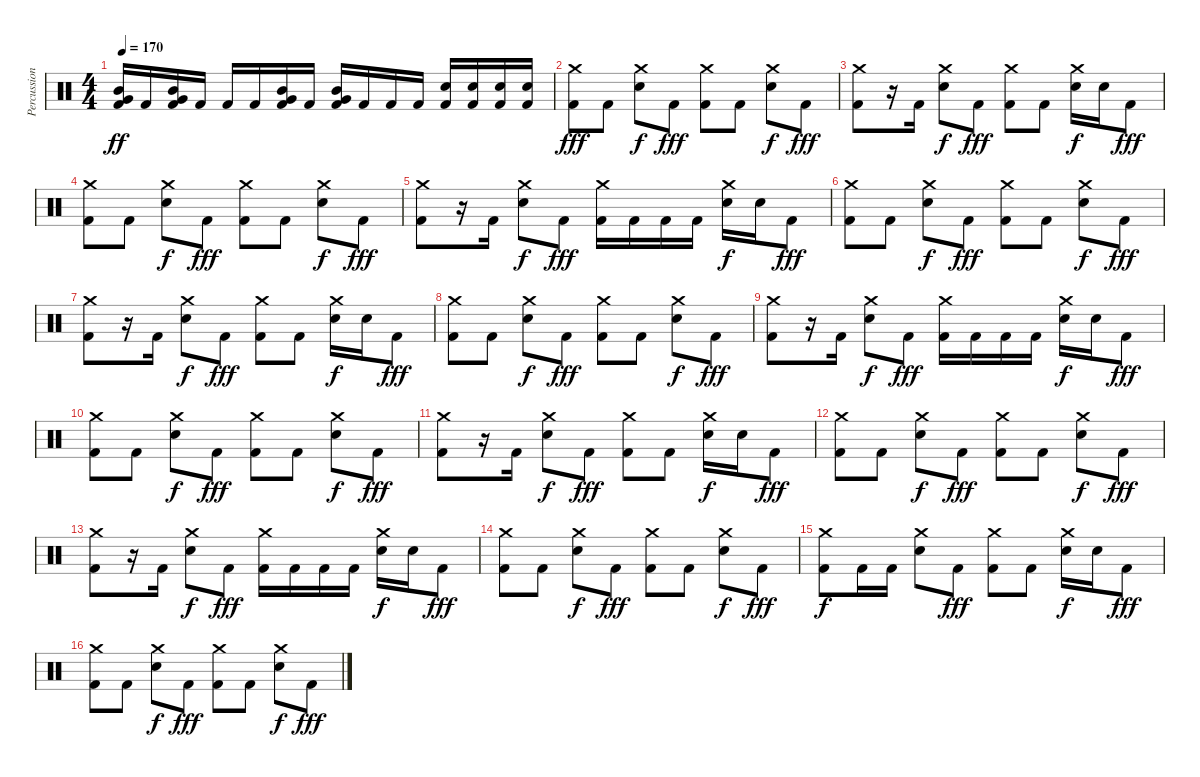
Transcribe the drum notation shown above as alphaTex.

\track ("Percussion" "Percussion") {instrument percussion}
\staff {score}
\articulation defaults
\ts (4 4)
\tempo 170
\clef neutral
\ks c
("Mid Tom (hit)" "Very Low Tom (hit)" "Kick (hit) 2").16{dy ff} "Kick (hit) 2".16 ("Mid Tom (hit)" "Very Low Tom (hit)" "Kick (hit) 2").16 "Kick (hit) 2".16 "Kick (hit) 2".16 "Kick (hit) 2".16 ("Mid Tom (hit)" "Very Low Tom (hit)" "Kick (hit) 2").16 "Kick (hit) 2".16 ("Mid Tom (hit)" "Very Low Tom (hit)" "Kick (hit) 2").16 "Kick (hit) 2".16 "Kick (hit) 2".16 "Kick (hit) 2".16 ("Electric Snare (hit)" "Kick (hit) 2").16 ("Electric Snare (hit)" "Kick (hit) 2").16 ("Electric Snare (hit)" "Kick (hit) 2").16 ("Electric Snare (hit)" "Kick (hit) 2").16 |
("Crash medium (hit)" "Kick (hit) 2").8{dy fff} "Kick (hit) 2".8 ("Crash medium (hit)" "Electric Snare (hit)").8{dy f} "Kick (hit) 2".8{dy fff} ("Crash medium (hit)" "Kick (hit) 2").8 "Kick (hit) 2".8 ("Crash medium (hit)" "Electric Snare (hit)").8{dy f} "Kick (hit) 2".8{dy fff} |
("Crash medium (hit)" "Kick (hit) 2").8 r.16 "Kick (hit) 2".16 ("Crash medium (hit)" "Electric Snare (hit)").8{dy f} "Kick (hit) 2".8{dy fff} ("Crash medium (hit)" "Kick (hit) 2").8 "Kick (hit) 2".8 ("Crash medium (hit)" "Electric Snare (hit)").16{dy f} "Electric Snare (hit)".16 "Kick (hit) 2".8{dy fff} |
("Crash medium (hit)" "Kick (hit) 2").8 "Kick (hit) 2".8 ("Crash medium (hit)" "Electric Snare (hit)").8{dy f} "Kick (hit) 2".8{dy fff} ("Crash medium (hit)" "Kick (hit) 2").8 "Kick (hit) 2".8 ("Crash medium (hit)" "Electric Snare (hit)").8{dy f} "Kick (hit) 2".8{dy fff} |
("Crash medium (hit)" "Kick (hit) 2").8 r.16 "Kick (hit) 2".16 ("Crash medium (hit)" "Electric Snare (hit)").8{dy f} "Kick (hit) 2".8{dy fff} ("Crash medium (hit)" "Kick (hit) 2").16 "Kick (hit) 2".16 "Kick (hit) 2".16 "Kick (hit) 2".16 ("Crash medium (hit)" "Electric Snare (hit)").16{dy f} "Electric Snare (hit)".16 "Kick (hit) 2".8{dy fff} |
("Crash medium (hit)" "Kick (hit) 2").8 "Kick (hit) 2".8 ("Crash medium (hit)" "Electric Snare (hit)").8{dy f} "Kick (hit) 2".8{dy fff} ("Crash medium (hit)" "Kick (hit) 2").8 "Kick (hit) 2".8 ("Crash medium (hit)" "Electric Snare (hit)").8{dy f} "Kick (hit) 2".8{dy fff} |
("Crash medium (hit)" "Kick (hit) 2").8 r.16 "Kick (hit) 2".16 ("Crash medium (hit)" "Electric Snare (hit)").8{dy f} "Kick (hit) 2".8{dy fff} ("Crash medium (hit)" "Kick (hit) 2").8 "Kick (hit) 2".8 ("Crash medium (hit)" "Electric Snare (hit)").16{dy f} "Electric Snare (hit)".16 "Kick (hit) 2".8{dy fff} |
("Crash medium (hit)" "Kick (hit) 2").8 "Kick (hit) 2".8 ("Crash medium (hit)" "Electric Snare (hit)").8{dy f} "Kick (hit) 2".8{dy fff} ("Crash medium (hit)" "Kick (hit) 2").8 "Kick (hit) 2".8 ("Crash medium (hit)" "Electric Snare (hit)").8{dy f} "Kick (hit) 2".8{dy fff} |
("Crash medium (hit)" "Kick (hit) 2").8 r.16 "Kick (hit) 2".16 ("Crash medium (hit)" "Electric Snare (hit)").8{dy f} "Kick (hit) 2".8{dy fff} ("Crash medium (hit)" "Kick (hit) 2").16 "Kick (hit) 2".16 "Kick (hit) 2".16 "Kick (hit) 2".16 ("Crash medium (hit)" "Electric Snare (hit)").16{dy f} "Electric Snare (hit)".16 "Kick (hit) 2".8{dy fff} |
("Crash medium (hit)" "Kick (hit) 2").8 "Kick (hit) 2".8 ("Crash medium (hit)" "Electric Snare (hit)").8{dy f} "Kick (hit) 2".8{dy fff} ("Crash medium (hit)" "Kick (hit) 2").8 "Kick (hit) 2".8 ("Crash medium (hit)" "Electric Snare (hit)").8{dy f} "Kick (hit) 2".8{dy fff} |
("Crash medium (hit)" "Kick (hit) 2").8 r.16 "Kick (hit) 2".16 ("Crash medium (hit)" "Electric Snare (hit)").8{dy f} "Kick (hit) 2".8{dy fff} ("Crash medium (hit)" "Kick (hit) 2").8 "Kick (hit) 2".8 ("Crash medium (hit)" "Electric Snare (hit)").16{dy f} "Electric Snare (hit)".16 "Kick (hit) 2".8{dy fff} |
("Crash medium (hit)" "Kick (hit) 2").8 "Kick (hit) 2".8 ("Crash medium (hit)" "Electric Snare (hit)").8{dy f} "Kick (hit) 2".8{dy fff} ("Crash medium (hit)" "Kick (hit) 2").8 "Kick (hit) 2".8 ("Crash medium (hit)" "Electric Snare (hit)").8{dy f} "Kick (hit) 2".8{dy fff} |
("Crash medium (hit)" "Kick (hit) 2").8 r.16 "Kick (hit) 2".16 ("Crash medium (hit)" "Electric Snare (hit)").8{dy f} "Kick (hit) 2".8{dy fff} ("Crash medium (hit)" "Kick (hit) 2").16 "Kick (hit) 2".16 "Kick (hit) 2".16 "Kick (hit) 2".16 ("Crash medium (hit)" "Electric Snare (hit)").16{dy f} "Electric Snare (hit)".16 "Kick (hit) 2".8{dy fff} |
("Crash medium (hit)" "Kick (hit) 2").8 "Kick (hit) 2".8 ("Crash medium (hit)" "Electric Snare (hit)").8{dy f} "Kick (hit) 2".8{dy fff} ("Crash medium (hit)" "Kick (hit) 2").8 "Kick (hit) 2".8 ("Crash medium (hit)" "Electric Snare (hit)").8{dy f} "Kick (hit) 2".8{dy fff} |
("Crash medium (hit)" "Kick (hit) 2").8{dy f} "Kick (hit) 2".16 "Kick (hit) 2".16 ("Crash medium (hit)" "Electric Snare (hit)").8 "Kick (hit) 2".8{dy fff} ("Crash medium (hit)" "Kick (hit) 2").8 "Kick (hit) 2".8 ("Crash medium (hit)" "Electric Snare (hit)").16{dy f} "Electric Snare (hit)".16 "Kick (hit) 2".8{dy fff} |
("Crash medium (hit)" "Kick (hit) 2").8 "Kick (hit) 2".8 ("Crash medium (hit)" "Electric Snare (hit)").8{dy f} "Kick (hit) 2".8{dy fff} ("Crash medium (hit)" "Kick (hit) 2").8 "Kick (hit) 2".8 ("Crash medium (hit)" "Electric Snare (hit)").8{dy f} "Kick (hit) 2".8{dy fff}
